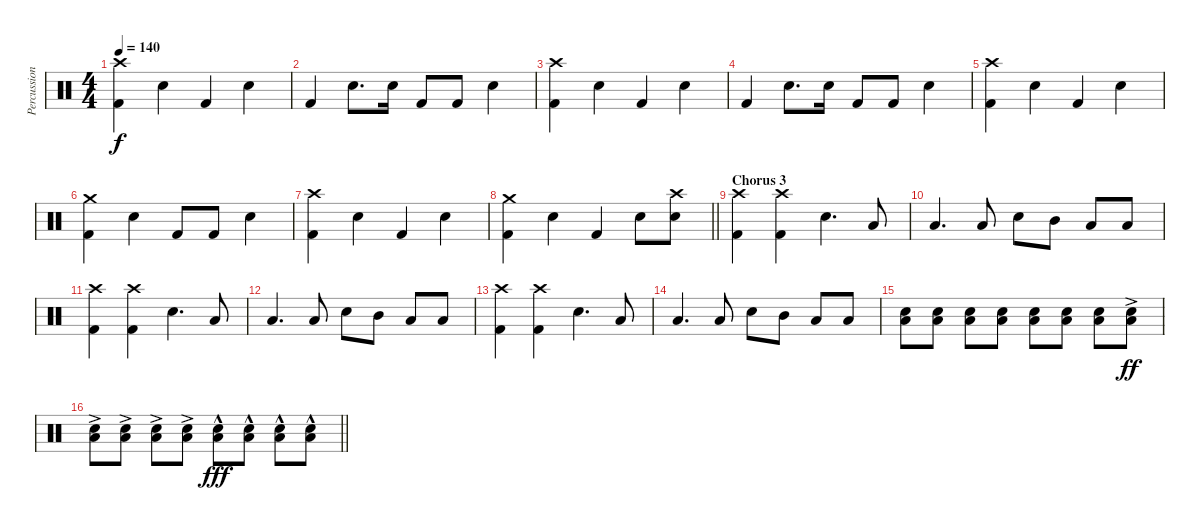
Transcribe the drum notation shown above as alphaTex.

\track ("Percussion (LP III)" "Percussion") {instrument percussion}
\staff {score}
\articulation defaults
\ts (4 4)
\tempo 140
\clef neutral
\ks c
("Crash high (hit)" "Kick (hit) 2").4{dy f} "Snare (hit) 2".4 "Kick (hit) 2".4 "Snare (hit) 2".4 |
"Kick (hit) 2".4 "Snare (hit) 2".8{d} "Snare (hit) 2".16 "Kick (hit) 2".8 "Kick (hit) 2".8 "Snare (hit) 2".4 |
("Crash high (hit)" "Kick (hit) 2").4 "Snare (hit) 2".4 "Kick (hit) 2".4 "Snare (hit) 2".4 |
"Kick (hit) 2".4 "Snare (hit) 2".8{d} "Snare (hit) 2".16 "Kick (hit) 2".8 "Kick (hit) 2".8 "Snare (hit) 2".4 |
("Crash high (hit)" "Kick (hit) 2").4 "Snare (hit) 2".4 "Kick (hit) 2".4 "Snare (hit) 2".4 |
("Crash medium (hit)" "Kick (hit) 2").4 "Snare (hit) 2".4 "Kick (hit) 2".8 "Kick (hit) 2".8 "Snare (hit) 2".4 |
("Crash high (hit)" "Kick (hit) 2").4 "Snare (hit) 2".4 "Kick (hit) 2".4 "Snare (hit) 2".4 |
\barLineRight lightlight
("Crash medium (hit)" "Kick (hit) 2").4 "Snare (hit) 2".4 "Kick (hit) 2".4 "Snare (hit) 2".8 ("Crash high (hit)" "Snare (hit) 2").8 |
\section ("" "Chorus 3")
("Crash high (hit)" "Kick (hit) 2").4 ("Crash high (hit)" "Kick (hit) 2").4 "Snare (hit) 2".4{d} "Low Tom (hit)".8 |
"Low Tom (hit)".4{d} "Low Tom (hit)".8 "Snare (hit) 2".8 "Mid Tom (hit)".8 "Low Tom (hit)".8 "Low Tom (hit)".8 |
("Crash high (hit)" "Kick (hit) 2").4 ("Crash high (hit)" "Kick (hit) 2").4 "Snare (hit) 2".4{d} "Low Tom (hit)".8 |
"Low Tom (hit)".4{d} "Low Tom (hit)".8 "Snare (hit) 2".8 "Mid Tom (hit)".8 "Low Tom (hit)".8 "Low Tom (hit)".8 |
("Crash high (hit)" "Kick (hit) 2").4 ("Crash high (hit)" "Kick (hit) 2").4 "Snare (hit) 2".4{d} "Low Tom (hit)".8 |
"Low Tom (hit)".4{d} "Low Tom (hit)".8 "Snare (hit) 2".8 "Mid Tom (hit)".8 "Low Tom (hit)".8 "Low Tom (hit)".8 |
("Snare (hit) 2" "Low Tom (hit)").8 ("Snare (hit) 2" "Low Tom (hit)").8 ("Snare (hit) 2" "Low Tom (hit)").8 ("Snare (hit) 2" "Low Tom (hit)").8 ("Snare (hit) 2" "Low Tom (hit)").8 ("Snare (hit) 2" "Low Tom (hit)").8 ("Snare (hit) 2" "Low Tom (hit)").8 ("Snare (hit) 2" "Low Tom (hit)"{ac}).8{dy ff} |
\barLineRight lightlight
("Snare (hit) 2" "Low Tom (hit)"{ac}).8 ("Snare (hit) 2" "Low Tom (hit)"{ac}).8 ("Snare (hit) 2" "Low Tom (hit)"{ac}).8 ("Snare (hit) 2" "Low Tom (hit)"{ac}).8 ("Snare (hit) 2" "Low Tom (hit)"{hac}).8{dy fff} ("Snare (hit) 2" "Low Tom (hit)"{hac}).8 ("Snare (hit) 2" "Low Tom (hit)"{hac}).8 ("Snare (hit) 2" "Low Tom (hit)"{hac}).8
